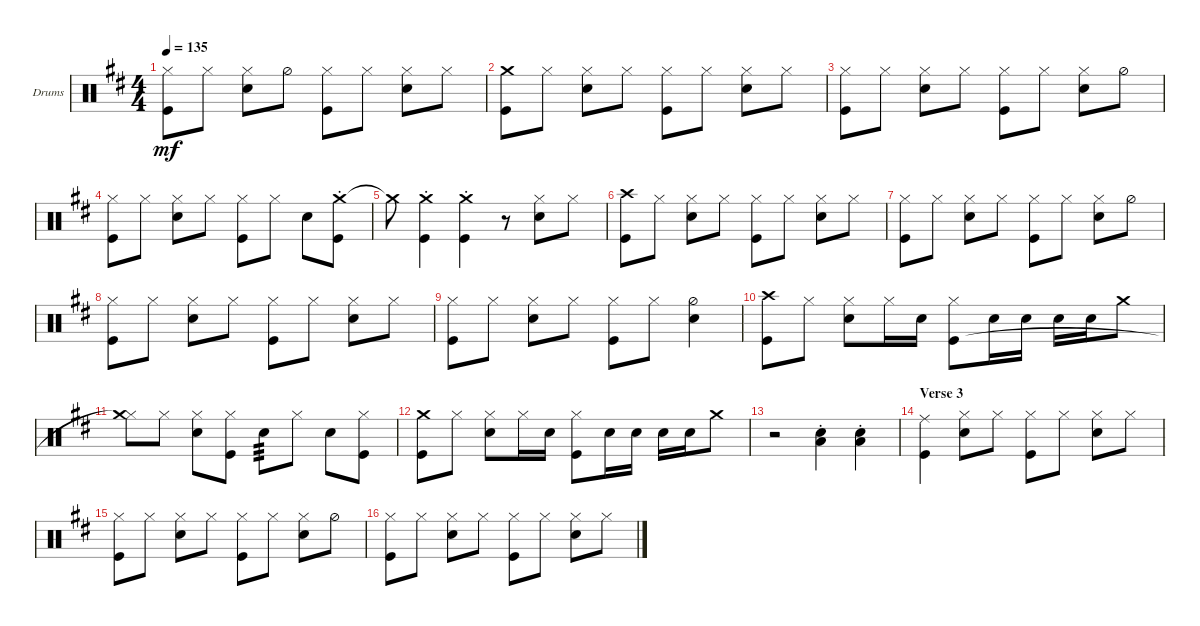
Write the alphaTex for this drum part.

\defaultSystemsLayout 4
\bracketExtendMode groupsimilarinstruments
\firstSystemTrackNameOrientation horizontal
\otherSystemsTrackNameOrientation horizontal
\track ("Drumkit" "Drums") {instrument percussion}
\staff {score}
\articulation defaults
\ts (4 4)
\tempo 135
\clef neutral
\ks bminor
("Hi-Hat (closed)" "Kick (hit)").8{dy mf} "Hi-Hat (closed)".8 ("Snare (hit) 2" "Hi-Hat (closed)").8 "Hi-Hat (half)".8 ("Kick (hit)" "Hi-Hat (closed)").8 "Hi-Hat (closed)".8 ("Hi-Hat (closed)" "Snare (hit) 2").8 "Hi-Hat (closed)".8 |
("Crash medium (hit)" "Kick (hit)").8 "Hi-Hat (closed)".8 ("Snare (hit) 2" "Hi-Hat (closed)").8 "Hi-Hat (closed)".8 ("Kick (hit)" "Hi-Hat (closed)").8 "Hi-Hat (closed)".8 ("Snare (hit) 2" "Hi-Hat (closed)").8 "Hi-Hat (closed)".8 |
("Hi-Hat (closed)" "Kick (hit)").8 "Hi-Hat (closed)".8 ("Snare (hit) 2" "Hi-Hat (closed)").8 "Hi-Hat (closed)".8 ("Kick (hit)" "Hi-Hat (closed)").8 "Hi-Hat (closed)".8 ("Snare (hit) 2" "Hi-Hat (closed)").8 "Hi-Hat (half)".8 |
("Hi-Hat (closed)" "Kick (hit)").8 "Hi-Hat (closed)".8 ("Snare (hit) 2" "Hi-Hat (closed)").8 "Hi-Hat (closed)".8 ("Kick (hit)" "Hi-Hat (closed)").8 "Hi-Hat (closed)".8 "Snare (hit) 2".8 ("Crash medium (hit)"{st} "Kick (hit)").8 |
"Crash medium (hit)"{t}.8 ("Crash medium (hit)"{st} "Kick (hit)").4 ("Crash medium (hit)"{st} "Kick (hit)").4 r.8 ("Snare (hit) 2" "Hi-Hat (closed)").8 "Hi-Hat (closed)".8 |
("Crash high (hit)" "Kick (hit)").8 "Hi-Hat (closed)".8 ("Hi-Hat (closed)" "Snare (hit) 2").8 "Hi-Hat (closed)".8 ("Hi-Hat (closed)" "Kick (hit)").8 "Hi-Hat (closed)".8 ("Hi-Hat (closed)" "Snare (hit) 2").8 "Hi-Hat (closed)".8 |
("Hi-Hat (closed)" "Kick (hit)").8 "Hi-Hat (closed)".8 ("Hi-Hat (closed)" "Snare (hit) 2").8 "Hi-Hat (closed)".8 ("Hi-Hat (closed)" "Kick (hit)").8 "Hi-Hat (closed)".8 ("Hi-Hat (closed)" "Snare (hit) 2").8 "Hi-Hat (half)".8 |
("Hi-Hat (closed)" "Kick (hit)").8 "Hi-Hat (closed)".8 ("Hi-Hat (closed)" "Snare (hit) 2").8 "Hi-Hat (closed)".8 ("Hi-Hat (closed)" "Kick (hit)").8 "Hi-Hat (closed)".8 ("Hi-Hat (closed)" "Snare (hit) 2").8 "Hi-Hat (closed)".8 |
("Hi-Hat (closed)" "Kick (hit)").8 "Hi-Hat (closed)".8 ("Hi-Hat (closed)" "Snare (hit) 2").8 "Hi-Hat (closed)".8 ("Hi-Hat (closed)" "Kick (hit)").8 "Hi-Hat (closed)".8 ("Hi-Hat (half)" "Snare (hit) 2").4 |
("Crash high (hit)" "Kick (hit)").8 "Hi-Hat (closed)".8 ("Snare (hit) 2" "Hi-Hat (closed)").8 "Hi-Hat (closed)".16 "Snare (hit) 2".16 ("Hi-Hat (closed)" "Kick (hit)").8 "Snare (hit) 2".16 "Snare (hit) 2".16 "Snare (hit) 2".16 "Snare (hit) 2".16 "Crash medium (hit)".8 |
("Hi-Hat (closed)" "Crash medium (hit)"{t}).8 "Hi-Hat (closed)".8 ("Snare (hit) 2" "Hi-Hat (closed)").8 ("Kick (hit)" "Hi-Hat (closed)").8 "Snare (hit) 2".8{tp 3} "Hi-Hat (closed)".8 "Snare (hit) 2".8 ("Hi-Hat (closed)" "Kick (hit)").8 |
("Kick (hit)" "Crash medium (hit)").8 "Hi-Hat (closed)".8 ("Snare (hit) 2" "Hi-Hat (closed)").8 "Hi-Hat (closed)".16 "Snare (hit) 2".16 ("Hi-Hat (closed)" "Kick (hit)").8 "Snare (hit) 2".16 "Snare (hit) 2".16 "Snare (hit) 2".16 "Snare (hit) 2".16 "Crash medium (hit)".8 |
r.2 ("Snare (hit) 2"{st} "Low Tom (hit)"{st}).4 ("Snare (hit) 2"{st} "Low Tom (hit)"{st}).4 |
\section ("" "Verse 3")
("Ride (middle)" "Kick (hit)").4 ("Snare (hit) 2" "Hi-Hat (closed)").8 "Hi-Hat (closed)".8 ("Kick (hit)" "Hi-Hat (closed)").8 "Hi-Hat (closed)".8 ("Hi-Hat (closed)" "Snare (hit) 2").8 "Hi-Hat (closed)".8 |
("Hi-Hat (closed)" "Kick (hit)").8 "Hi-Hat (closed)".8 ("Snare (hit) 2" "Hi-Hat (closed)").8 "Hi-Hat (closed)".8 ("Kick (hit)" "Hi-Hat (closed)").8 "Hi-Hat (closed)".8 ("Snare (hit) 2" "Hi-Hat (closed)").8 "Hi-Hat (half)".8 |
("Hi-Hat (closed)" "Kick (hit)").8 "Hi-Hat (closed)".8 ("Snare (hit) 2" "Hi-Hat (closed)").8 "Hi-Hat (closed)".8 ("Kick (hit)" "Hi-Hat (closed)").8 "Hi-Hat (closed)".8 ("Snare (hit) 2" "Hi-Hat (closed)").8 "Hi-Hat (closed)".8
